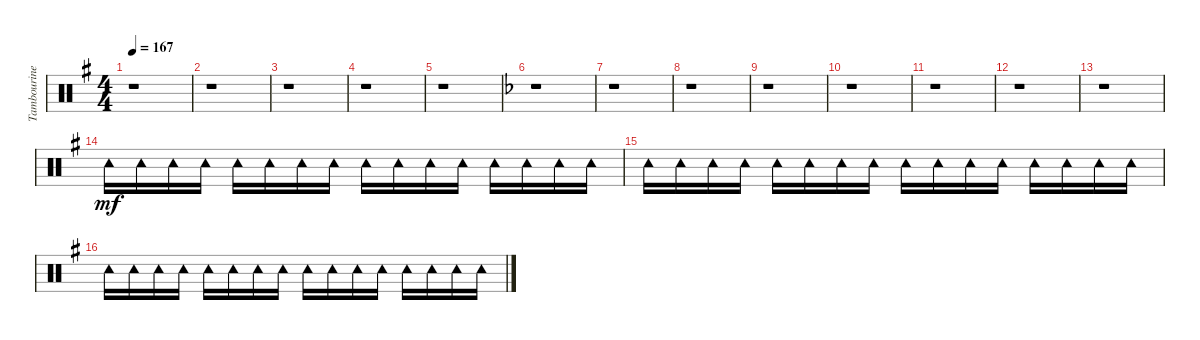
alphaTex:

\track ("Tambourine" "Tambourine") {instrument percussion}
\staff {score}
\articulation defaults
\ts (4 4)
\tempo 167
\clef neutral
\ks eminor
r.1{dy mf} |
r.1 |
r.1 |
r.1 |
r.1 |
\ks dminor
r.1 |
r.1 |
r.1 |
r.1 |
r.1 |
r.1 |
r.1 |
r.1 |
\ks eminor "Tambourine (hit)".16 "Tambourine (hit)".16 "Tambourine (hit)".16 "Tambourine (hit)".16 "Tambourine (hit)".16 "Tambourine (hit)".16 "Tambourine (hit)".16 "Tambourine (hit)".16 "Tambourine (hit)".16 "Tambourine (hit)".16 "Tambourine (hit)".16 "Tambourine (hit)".16 "Tambourine (hit)".16 "Tambourine (hit)".16 "Tambourine (hit)".16 "Tambourine (hit)".16
|
"Tambourine (hit)".16 "Tambourine (hit)".16 "Tambourine (hit)".16 "Tambourine (hit)".16 "Tambourine (hit)".16 "Tambourine (hit)".16 "Tambourine (hit)".16 "Tambourine (hit)".16 "Tambourine (hit)".16 "Tambourine (hit)".16 "Tambourine (hit)".16 "Tambourine (hit)".16 "Tambourine (hit)".16 "Tambourine (hit)".16 "Tambourine (hit)".16 "Tambourine (hit)".16 |
"Tambourine (hit)".16 "Tambourine (hit)".16 "Tambourine (hit)".16 "Tambourine (hit)".16 "Tambourine (hit)".16 "Tambourine (hit)".16 "Tambourine (hit)".16 "Tambourine (hit)".16 "Tambourine (hit)".16 "Tambourine (hit)".16 "Tambourine (hit)".16 "Tambourine (hit)".16 "Tambourine (hit)".16 "Tambourine (hit)".16 "Tambourine (hit)".16 "Tambourine (hit)".16
